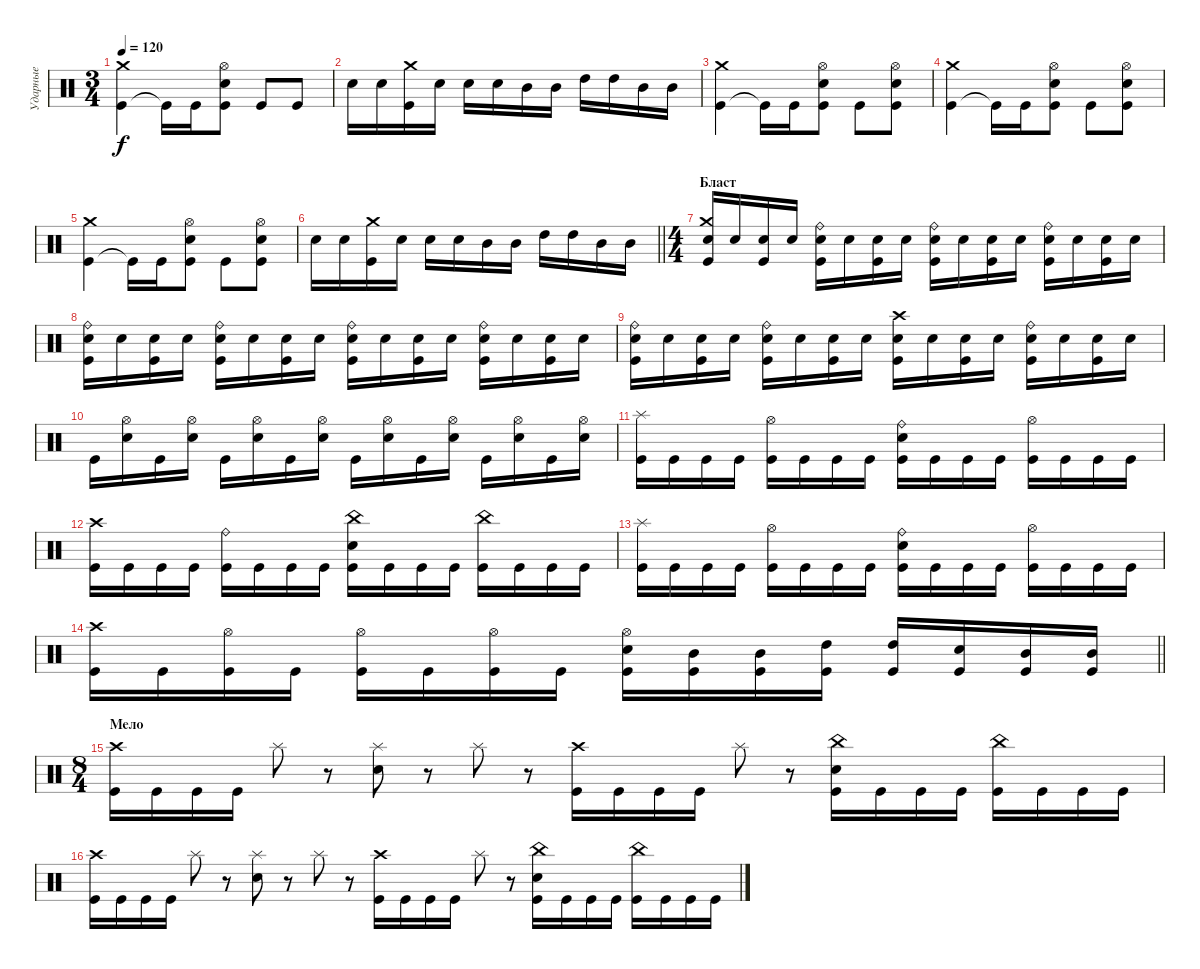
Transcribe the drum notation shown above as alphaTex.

\track ("Ударные" "Ударные") {instrument percussion}
\staff {score}
\articulation defaults
\ts (3 4)
\tempo 120
\clef neutral
\ks c
("Kick (hit)" "Crash medium (hit)").4{dy f} "Kick (hit)"{t}.16 "Kick (hit)".16 ("Kick (hit)" "Snare (hit) 2" "Hi-Hat (open)").8 "Kick (hit)".8 "Kick (hit)".8 |
"Snare (hit) 2".16 "Snare (hit) 2".16 ("Kick (hit)" "Crash medium (hit)").16 "Snare (hit) 2".16 "Snare (hit) 2".16 "Snare (hit) 2".16 "Mid Tom (hit)".16 "Mid Tom (hit)".16 "High Tom (hit)".16 "High Tom (hit)".16 "Mid Tom (hit)".16 "Mid Tom (hit)".16 |
("Kick (hit)" "Crash medium (hit)").4 "Kick (hit)"{t}.16 "Kick (hit)".16 ("Kick (hit)" "Snare (hit) 2" "Hi-Hat (open)").8 "Kick (hit)".8 ("Kick (hit)" "Snare (hit) 2" "Hi-Hat (open)").8 |
("Kick (hit)" "Crash medium (hit)").4 "Kick (hit)"{t}.16 "Kick (hit)".16 ("Kick (hit)" "Snare (hit) 2" "Hi-Hat (open)").8 "Kick (hit)".8 ("Kick (hit)" "Snare (hit) 2" "Hi-Hat (open)").8 |
("Kick (hit)" "Crash medium (hit)").4 "Kick (hit)"{t}.16 "Kick (hit)".16 ("Kick (hit)" "Snare (hit) 2" "Hi-Hat (open)").8 "Kick (hit)".8 ("Kick (hit)" "Snare (hit) 2" "Hi-Hat (open)").8 |
\barLineRight lightlight "Snare (hit) 2".16 "Snare (hit) 2".16
("Kick (hit)" "Crash medium (hit)").16 "Snare (hit) 2".16 "Snare (hit) 2".16 "Snare (hit) 2".16 "Mid Tom (hit)".16 "Mid Tom (hit)".16 "High Tom (hit)".16 "High Tom (hit)".16 "Mid Tom (hit)".16 "Mid Tom (hit)".16 |
\ts (4 4)
\section ("" "Бласт")
("Crash medium (hit)" "Snare (hit) 2" "Kick (hit)").16 "Snare (hit) 2".16 ("Snare (hit) 2" "Kick (hit)").16 "Snare (hit) 2".16 ("Ride (bell)" "Snare (hit) 2" "Kick (hit)").16 "Snare (hit) 2".16 ("Snare (hit) 2" "Kick (hit)").16 "Snare (hit) 2".16 ("Ride (bell)" "Snare (hit) 2" "Kick (hit)").16 "Snare (hit) 2".16 ("Snare (hit) 2" "Kick (hit)").16 "Snare (hit) 2".16 ("Ride (bell)" "Snare (hit) 2" "Kick (hit)").16 "Snare (hit) 2".16 ("Snare (hit) 2" "Kick (hit)").16 "Snare (hit) 2".16 |
("Ride (bell)" "Snare (hit) 2" "Kick (hit)").16 "Snare (hit) 2".16 ("Snare (hit) 2" "Kick (hit)").16 "Snare (hit) 2".16 ("Ride (bell)" "Snare (hit) 2" "Kick (hit)").16 "Snare (hit) 2".16 ("Snare (hit) 2" "Kick (hit)").16 "Snare (hit) 2".16 ("Ride (bell)" "Snare (hit) 2" "Kick (hit)").16 "Snare (hit) 2".16 ("Snare (hit) 2" "Kick (hit)").16 "Snare (hit) 2".16 ("Ride (bell)" "Snare (hit) 2" "Kick (hit)").16 "Snare (hit) 2".16 ("Snare (hit) 2" "Kick (hit)").16 "Snare (hit) 2".16 |
("Ride (bell)" "Snare (hit) 2" "Kick (hit)").16 "Snare (hit) 2".16 ("Snare (hit) 2" "Kick (hit)").16 "Snare (hit) 2".16 ("Ride (bell)" "Snare (hit) 2" "Kick (hit)").16 "Snare (hit) 2".16 ("Snare (hit) 2" "Kick (hit)").16 "Snare (hit) 2".16 ("Crash high (hit)" "Snare (hit) 2" "Kick (hit)").16 "Snare (hit) 2".16 ("Snare (hit) 2" "Kick (hit)").16 "Snare (hit) 2".16 ("Ride (bell)" "Snare (hit) 2" "Kick (hit)").16 "Snare (hit) 2".16 ("Snare (hit) 2" "Kick (hit)").16 "Snare (hit) 2".16 |
"Kick (hit)".16 ("Snare (hit) 2" "Hi-Hat (open)").16 "Kick (hit)".16 ("Snare (hit) 2" "Hi-Hat (open)").16 "Kick (hit)".16 ("Snare (hit) 2" "Hi-Hat (open)").16 "Kick (hit)".16 ("Snare (hit) 2" "Hi-Hat (open)").16 "Kick (hit)".16 ("Snare (hit) 2" "Hi-Hat (open)").16 "Kick (hit)".16 ("Snare (hit) 2" "Hi-Hat (open)").16 "Kick (hit)".16 ("Snare (hit) 2" "Hi-Hat (open)").16 "Kick (hit)".16 ("Snare (hit) 2" "Hi-Hat (open)").16 |
("Kick (hit)" "Splash (hit)").16 "Kick (hit)".16 "Kick (hit)".16 "Kick (hit)".16 ("Kick (hit)" "Hi-Hat (open)").16 "Kick (hit)".16 "Kick (hit)".16 "Kick (hit)".16 ("Snare (hit) 2" "Kick (hit)" "Ride (bell)").16 "Kick (hit)".16 "Kick (hit)".16 "Kick (hit)".16 ("Kick (hit)" "Hi-Hat (open)").16 "Kick (hit)".16 "Kick (hit)".16 "Kick (hit)".16 |
("Kick (hit)" "Crash high (hit)").16 "Kick (hit)".16 "Kick (hit)".16 "Kick (hit)".16 ("Kick (hit)" "Ride (bell)").16 "Kick (hit)".16 "Kick (hit)".16 "Kick (hit)".16 ("Snare (hit) 2" "Kick (hit)" "China (hit)").16 "Kick (hit)".16 "Kick (hit)".16 "Kick (hit)".16 ("Kick (hit)" "China (hit)").16 "Kick (hit)".16 "Kick (hit)".16 "Kick (hit)".16 |
("Kick (hit)" "Splash (hit)").16 "Kick (hit)".16 "Kick (hit)".16 "Kick (hit)".16 ("Kick (hit)" "Hi-Hat (open)").16 "Kick (hit)".16 "Kick (hit)".16 "Kick (hit)".16 ("Snare (hit) 2" "Kick (hit)" "Ride (bell)").16 "Kick (hit)".16 "Kick (hit)".16 "Kick (hit)".16 ("Kick (hit)" "Hi-Hat (open)").16 "Kick (hit)".16 "Kick (hit)".16 "Kick (hit)".16 |
\barLineRight lightlight
("Kick (hit)" "Crash high (hit)").16 "Kick (hit)".16 ("Kick (hit)" "Hi-Hat (open)").16 "Kick (hit)".16 ("Kick (hit)" "Hi-Hat (open)").16 "Kick (hit)".16 ("Kick (hit)" "Hi-Hat (open)").16 "Kick (hit)".16 ("Snare (hit) 2" "Kick (hit)" "Hi-Hat (open)").16 ("Mid Tom (hit)" "Kick (hit)").16 ("Mid Tom (hit)" "Kick (hit)").16 ("High Tom (hit)" "Kick (hit)").16 ("High Tom (hit)" "Kick (hit)").16 ("Snare (hit) 2" "Kick (hit)").16 ("Mid Tom (hit)" "Kick (hit)").16 ("Mid Tom (hit)" "Kick (hit)").16 |
\ts (8 4)
\section ("" "Мело")
("Kick (hit)" "Crash high (hit)").16 "Kick (hit)".16 "Kick (hit)".16 "Kick (hit)".16 "Splash (hit)".8 r.8 ("Snare (hit) 2" "Splash (hit)").8 r.8 "Splash (hit)".8 r.8 ("Kick (hit)" "Crash high (hit)").16 "Kick (hit)".16 "Kick (hit)".16 "Kick (hit)".16 "Splash (hit)".8 r.8 ("Kick (hit)" "Snare (hit) 2" "China (hit)").16 "Kick (hit)".16 "Kick (hit)".16 "Kick (hit)".16 ("Kick (hit)" "China (hit)").16 "Kick (hit)".16 "Kick (hit)".16 "Kick (hit)".16 |
("Kick (hit)" "Crash high (hit)").16 "Kick (hit)".16 "Kick (hit)".16 "Kick (hit)".16 "Splash (hit)".8 r.8 ("Snare (hit) 2" "Splash (hit)").8 r.8 "Splash (hit)".8 r.8 ("Kick (hit)" "Crash high (hit)").16 "Kick (hit)".16 "Kick (hit)".16 "Kick (hit)".16 "Splash (hit)".8 r.8 ("Kick (hit)" "Snare (hit) 2" "China (hit)").16 "Kick (hit)".16 "Kick (hit)".16 "Kick (hit)".16 ("Kick (hit)" "China (hit)").16 "Kick (hit)".16 "Kick (hit)".16 "Kick (hit)".16
